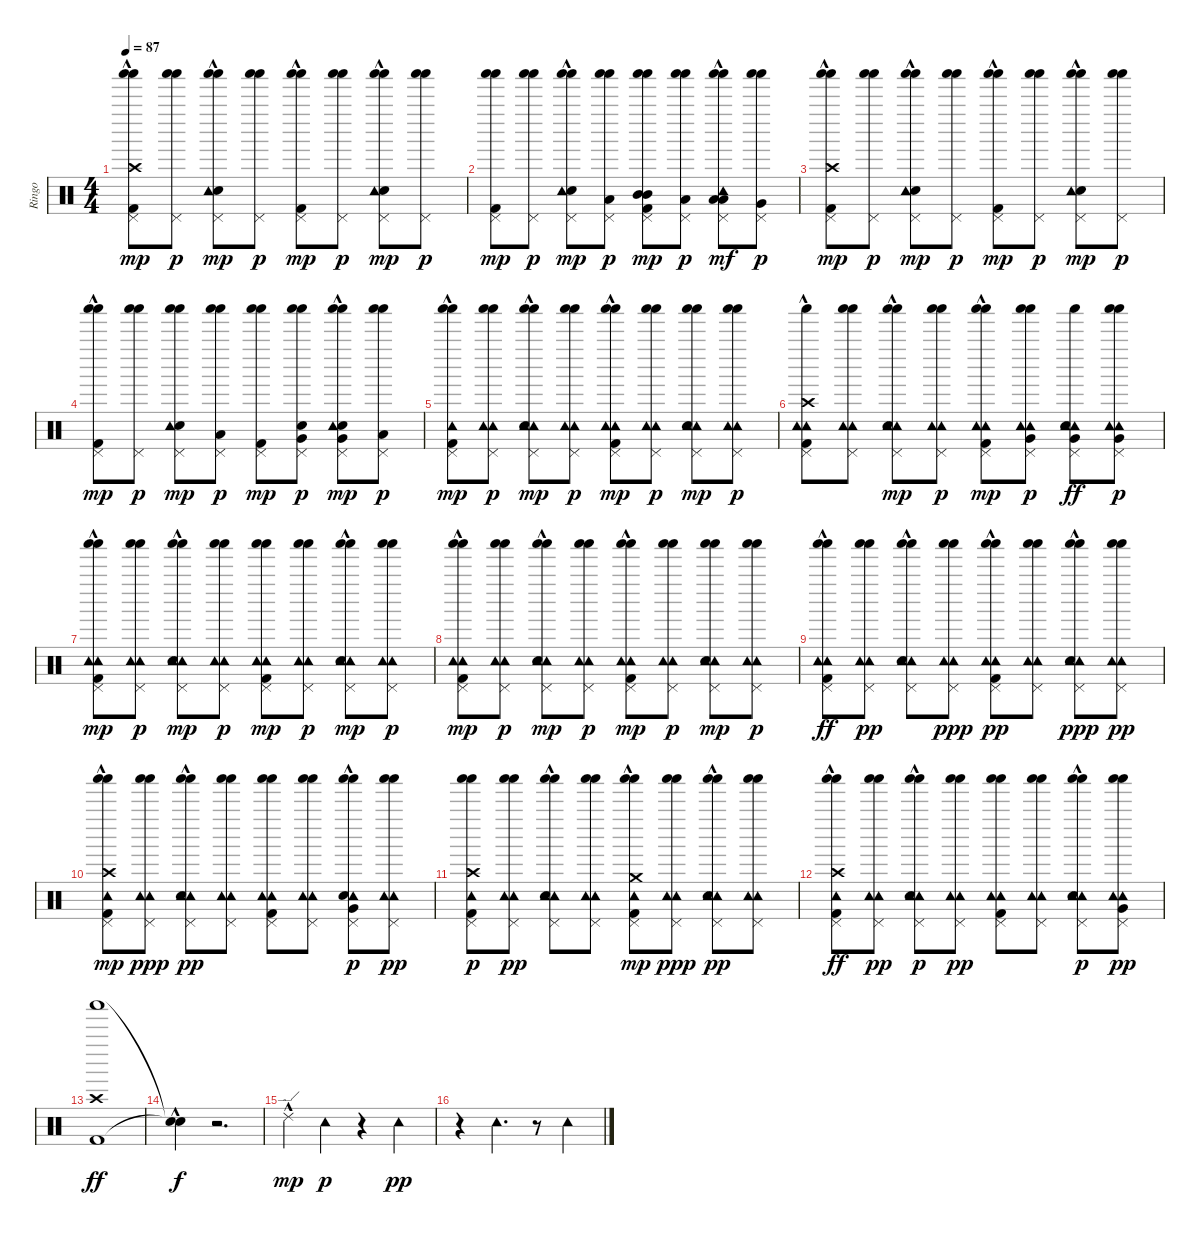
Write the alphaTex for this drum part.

\track ("Ringo" "Ringo") {instrument percussion}
\staff {score}
\articulation defaults
\ts (4 4)
\tempo 87
\clef neutral
\ks c
("Shaker (hit)" "Crash high (hit)" "Kick (hit) 2"{hac} "Pedal Hi-Hat (hit)" "Shaker (hit)").8{dy mp} ("Shaker (hit)" "Pedal Hi-Hat (hit)" "Shaker (hit)").8{dy p} ("Shaker (hit)" "Snare (hit) 2"{hac} "Pedal Hi-Hat (hit)" "Tambourine (hit)" "Shaker (hit)").8{dy mp} ("Shaker (hit)" "Pedal Hi-Hat (hit)" "Shaker (hit)").8{dy p} ("Shaker (hit)" "Kick (hit) 2"{hac} "Pedal Hi-Hat (hit)" "Shaker (hit)").8{dy mp} ("Shaker (hit)" "Pedal Hi-Hat (hit)" "Shaker (hit)").8{dy p} ("Shaker (hit)" "Snare (hit) 2"{hac} "Pedal Hi-Hat (hit)" "Tambourine (hit)" "Shaker (hit)").8{dy mp} ("Shaker (hit)" "Pedal Hi-Hat (hit)" "Shaker (hit)").8{dy p} |
("Shaker (hit)" "Pedal Hi-Hat (hit)" "Kick (hit) 2" "Shaker (hit)").8{dy mp} ("Shaker (hit)" "Pedal Hi-Hat (hit)" "Shaker (hit)").8{dy p} ("Shaker (hit)" "Pedal Hi-Hat (hit)" "Snare (hit) 2"{hac} "Tambourine (hit)"{hac} "Shaker (hit)").8{dy mp} ("Shaker (hit)" "Pedal Hi-Hat (hit)" "Low Floor Tom (hit)" "Shaker (hit)").8{dy p} ("Shaker (hit)" "Pedal Hi-Hat (hit)" "Mid Tom (hit)" "Kick (hit) 2" "Shaker (hit)" "Mid Tom (hit)").8{dy mp} ("Shaker (hit)" "Pedal Hi-Hat (hit)" "Low Tom (hit)" "Shaker (hit)").8{dy p} ("Shaker (hit)" "Pedal Hi-Hat (hit)" "Low Tom (hit)" "Tambourine (hit)"{hac} "Shaker (hit)" "Low Tom (hit)").8{dy mf} ("Shaker (hit)" "Pedal Hi-Hat (hit)" "Very Low Tom (hit)" "Shaker (hit)").8{dy p} |
("Shaker (hit)" "Crash high (hit)"{hac} "Kick (hit) 2"{hac} "Pedal Hi-Hat (hit)" "Shaker (hit)").8{dy mp} ("Shaker (hit)" "Pedal Hi-Hat (hit)" "Shaker (hit)").8{dy p} ("Shaker (hit)" "Snare (hit) 2"{hac} "Pedal Hi-Hat (hit)" "Tambourine (hit)" "Shaker (hit)").8{dy mp} ("Shaker (hit)" "Pedal Hi-Hat (hit)" "Shaker (hit)").8{dy p} ("Shaker (hit)" "Kick (hit) 2"{hac} "Pedal Hi-Hat (hit)" "Shaker (hit)").8{dy mp} ("Shaker (hit)" "Pedal Hi-Hat (hit)" "Shaker (hit)").8{dy p} ("Shaker (hit)" "Snare (hit) 2"{hac} "Pedal Hi-Hat (hit)" "Tambourine (hit)" "Shaker (hit)").8{dy mp} ("Shaker (hit)" "Pedal Hi-Hat (hit)" "Shaker (hit)").8{dy p} |
("Shaker (hit)" "Pedal Hi-Hat (hit)" "Kick (hit) 2"{hac} "Shaker (hit)").8{dy mp} ("Shaker (hit)" "Pedal Hi-Hat (hit)" "Shaker (hit)").8{dy p} ("Shaker (hit)" "Pedal Hi-Hat (hit)" "Snare (hit) 2" "Tambourine (hit)" "Shaker (hit)").8{dy mp} ("Shaker (hit)" "Pedal Hi-Hat (hit)" "Low Floor Tom (hit)" "Shaker (hit)").8{dy p} ("Shaker (hit)" "Pedal Hi-Hat (hit)" "Kick (hit) 2" "Shaker (hit)").8{dy mp} ("Shaker (hit)" "Pedal Hi-Hat (hit)" "Snare (hit) 2" "Very Low Tom (hit)" "Shaker (hit)").8{dy p} ("Shaker (hit)" "Pedal Hi-Hat (hit)" "Snare (hit) 2"{hac} "Tambourine (hit)"{hac} "Shaker (hit)" "Very Low Tom (hit)").8{dy mp} ("Shaker (hit)" "Pedal Hi-Hat (hit)" "Low Floor Tom (hit)" "Shaker (hit)").8{dy p} |
("Shaker (hit)" "Pedal Hi-Hat (hit)" "Kick (hit) 2"{hac} "Tambourine (hit)" "Shaker (hit)").8{dy mp} ("Shaker (hit)" "Tambourine (hit)" "Pedal Hi-Hat (hit)" "Tambourine (hit)" "Shaker (hit)").8{dy p} ("Shaker (hit)" "Tambourine (hit)" "Tambourine (hit)" "Pedal Hi-Hat (hit)" "Snare (hit) 2"{hac} "Shaker (hit)").8{dy mp} ("Shaker (hit)" "Tambourine (hit)" "Pedal Hi-Hat (hit)" "Tambourine (hit)" "Shaker (hit)").8{dy p} ("Shaker (hit)" "Tambourine (hit)" "Pedal Hi-Hat (hit)" "Kick (hit) 2"{hac} "Tambourine (hit)" "Shaker (hit)").8{dy mp} ("Shaker (hit)" "Tambourine (hit)" "Pedal Hi-Hat (hit)" "Tambourine (hit)" "Shaker (hit)").8{dy p} ("Shaker (hit)" "Tambourine (hit)" "Tambourine (hit)" "Pedal Hi-Hat (hit)" "Snare (hit) 2" "Shaker (hit)").8{dy mp} ("Shaker (hit)" "Tambourine (hit)" "Pedal Hi-Hat (hit)" "Tambourine (hit)" "Shaker (hit)").8{dy p} |
("Shaker (hit)" "Tambourine (hit)" "Pedal Hi-Hat (hit)" "Kick (hit) 2"{hac} "Crash high (hit)"{hac} "Tambourine (hit)").8 ("Shaker (hit)" "Tambourine (hit)" "Pedal Hi-Hat (hit)" "Tambourine (hit)" "Shaker (hit)").8 ("Shaker (hit)" "Tambourine (hit)" "Tambourine (hit)" "Pedal Hi-Hat (hit)" "Snare (hit) 2"{hac} "Shaker (hit)").8{dy mp} ("Shaker (hit)" "Tambourine (hit)" "Pedal Hi-Hat (hit)" "Tambourine (hit)" "Shaker (hit)").8{dy p} ("Shaker (hit)" "Tambourine (hit)" "Pedal Hi-Hat (hit)" "Kick (hit) 2"{hac} "Tambourine (hit)" "Shaker (hit)").8{dy mp} ("Shaker (hit)" "Tambourine (hit)" "Very Low Tom (hit)" "Pedal Hi-Hat (hit)" "Tambourine (hit)" "Shaker (hit)").8{dy p} ("Shaker (hit)" "Tambourine (hit)" "Tambourine (hit)" "Very Low Tom (hit)" "Pedal Hi-Hat (hit)" "Snare (hit) 2").8{dy ff} ("Shaker (hit)" "Tambourine (hit)" "Very Low Tom (hit)" "Pedal Hi-Hat (hit)" "Tambourine (hit)" "Shaker (hit)").8{dy p} |
("Shaker (hit)" "Tambourine (hit)" "Kick (hit) 2"{hac} "Pedal Hi-Hat (hit)" "Tambourine (hit)" "Shaker (hit)").8{dy mp} ("Shaker (hit)" "Tambourine (hit)" "Pedal Hi-Hat (hit)" "Tambourine (hit)" "Shaker (hit)").8{dy p} ("Shaker (hit)" "Tambourine (hit)" "Tambourine (hit)" "Snare (hit) 2"{hac} "Pedal Hi-Hat (hit)" "Shaker (hit)").8{dy mp} ("Shaker (hit)" "Tambourine (hit)" "Pedal Hi-Hat (hit)" "Tambourine (hit)" "Shaker (hit)").8{dy p} ("Shaker (hit)" "Tambourine (hit)" "Kick (hit) 2" "Pedal Hi-Hat (hit)" "Tambourine (hit)" "Shaker (hit)").8{dy mp} ("Shaker (hit)" "Tambourine (hit)" "Pedal Hi-Hat (hit)" "Tambourine (hit)" "Shaker (hit)").8{dy p} ("Shaker (hit)" "Tambourine (hit)" "Tambourine (hit)" "Snare (hit) 2"{hac} "Pedal Hi-Hat (hit)" "Shaker (hit)").8{dy mp} ("Shaker (hit)" "Tambourine (hit)" "Pedal Hi-Hat (hit)" "Tambourine (hit)" "Shaker (hit)").8{dy p} |
("Shaker (hit)" "Tambourine (hit)" "Kick (hit) 2"{hac} "Pedal Hi-Hat (hit)" "Tambourine (hit)" "Shaker (hit)").8{dy mp} ("Shaker (hit)" "Tambourine (hit)" "Pedal Hi-Hat (hit)" "Tambourine (hit)" "Shaker (hit)").8{dy p} ("Shaker (hit)" "Tambourine (hit)" "Tambourine (hit)" "Snare (hit) 2"{hac} "Pedal Hi-Hat (hit)" "Shaker (hit)").8{dy mp} ("Shaker (hit)" "Tambourine (hit)" "Pedal Hi-Hat (hit)" "Tambourine (hit)" "Shaker (hit)").8{dy p} ("Shaker (hit)" "Tambourine (hit)" "Kick (hit) 2"{hac} "Pedal Hi-Hat (hit)" "Tambourine (hit)" "Shaker (hit)").8{dy mp} ("Shaker (hit)" "Tambourine (hit)" "Pedal Hi-Hat (hit)" "Tambourine (hit)" "Shaker (hit)").8{dy p} ("Shaker (hit)" "Tambourine (hit)" "Tambourine (hit)" "Snare (hit) 2" "Pedal Hi-Hat (hit)" "Shaker (hit)").8{dy mp} ("Shaker (hit)" "Tambourine (hit)" "Pedal Hi-Hat (hit)" "Tambourine (hit)" "Shaker (hit)").8{dy p} |
("Shaker (hit)" "Tambourine (hit)" "Tambourine (hit)" "Shaker (hit)" "Pedal Hi-Hat (hit)" "Kick (hit) 2"{hac}).8{dy ff} ("Shaker (hit)" "Tambourine (hit)" "Pedal Hi-Hat (hit)" "Shaker (hit)" "Tambourine (hit)").8{dy pp} ("Shaker (hit)" "Tambourine (hit)" "Pedal Hi-Hat (hit)" "Snare (hit) 2"{hac} "Shaker (hit)" "Tambourine (hit)").8 ("Shaker (hit)" "Tambourine (hit)" "Pedal Hi-Hat (hit)" "Shaker (hit)" "Tambourine (hit)").8{dy ppp} ("Shaker (hit)" "Tambourine (hit)" "Pedal Hi-Hat (hit)" "Kick (hit) 2"{hac} "Shaker (hit)" "Tambourine (hit)").8{dy pp} ("Shaker (hit)" "Tambourine (hit)" "Pedal Hi-Hat (hit)" "Shaker (hit)" "Tambourine (hit)").8 ("Shaker (hit)" "Tambourine (hit)" "Pedal Hi-Hat (hit)" "Snare (hit) 2"{hac} "Shaker (hit)" "Tambourine (hit)").8{dy ppp} ("Shaker (hit)" "Tambourine (hit)" "Pedal Hi-Hat (hit)" "Shaker (hit)" "Tambourine (hit)").8{dy pp} |
("Shaker (hit)" "Tambourine (hit)" "Shaker (hit)" "Crash high (hit)"{hac} "Pedal Hi-Hat (hit)" "Kick (hit) 2").8{dy mp} ("Shaker (hit)" "Tambourine (hit)" "Pedal Hi-Hat (hit)" "Shaker (hit)" "Tambourine (hit)").8{dy ppp} ("Shaker (hit)" "Tambourine (hit)" "Pedal Hi-Hat (hit)" "Snare (hit) 2"{hac} "Shaker (hit)" "Tambourine (hit)").8{dy pp} ("Shaker (hit)" "Tambourine (hit)" "Pedal Hi-Hat (hit)" "Shaker (hit)" "Tambourine (hit)").8 ("Shaker (hit)" "Tambourine (hit)" "Pedal Hi-Hat (hit)" "Kick (hit) 2" "Shaker (hit)" "Tambourine (hit)").8 ("Shaker (hit)" "Tambourine (hit)" "Pedal Hi-Hat (hit)" "Shaker (hit)" "Tambourine (hit)").8 ("Shaker (hit)" "Tambourine (hit)" "Very Low Tom (hit)" "Pedal Hi-Hat (hit)" "Snare (hit) 2"{hac} "Shaker (hit)").8{dy p} ("Shaker (hit)" "Tambourine (hit)" "Pedal Hi-Hat (hit)" "Shaker (hit)" "Tambourine (hit)").8{dy pp} |
("Shaker (hit)" "Tambourine (hit)" "Shaker (hit)" "Crash high (hit)" "Pedal Hi-Hat (hit)" "Kick (hit) 2").8{dy p} ("Shaker (hit)" "Tambourine (hit)" "Pedal Hi-Hat (hit)" "Shaker (hit)" "Tambourine (hit)").8{dy pp} ("Shaker (hit)" "Tambourine (hit)" "Pedal Hi-Hat (hit)" "Snare (hit) 2"{hac} "Shaker (hit)" "Tambourine (hit)").8 ("Shaker (hit)" "Tambourine (hit)" "Pedal Hi-Hat (hit)" "Shaker (hit)" "Tambourine (hit)").8 ("Shaker (hit)" "Tambourine (hit)" "Crash medium (hit)" "Pedal Hi-Hat (hit)" "Kick (hit) 2"{hac} "Shaker (hit)").8{dy mp} ("Shaker (hit)" "Tambourine (hit)" "Pedal Hi-Hat (hit)" "Shaker (hit)" "Tambourine (hit)").8{dy ppp} ("Shaker (hit)" "Tambourine (hit)" "Pedal Hi-Hat (hit)" "Snare (hit) 2"{hac} "Shaker (hit)" "Tambourine (hit)").8{dy pp} ("Shaker (hit)" "Tambourine (hit)" "Pedal Hi-Hat (hit)" "Shaker (hit)" "Tambourine (hit)").8 |
("Shaker (hit)" "Tambourine (hit)" "Shaker (hit)" "Crash high (hit)"{hac} "Pedal Hi-Hat (hit)" "Kick (hit) 2").8{dy ff} ("Shaker (hit)" "Tambourine (hit)" "Pedal Hi-Hat (hit)" "Shaker (hit)" "Tambourine (hit)").8{dy pp} ("Shaker (hit)" "Tambourine (hit)" "Pedal Hi-Hat (hit)" "Snare (hit) 2"{hac} "Shaker (hit)" "Tambourine (hit)").8{dy p} ("Shaker (hit)" "Tambourine (hit)" "Pedal Hi-Hat (hit)" "Shaker (hit)" "Tambourine (hit)").8{dy pp} ("Shaker (hit)" "Tambourine (hit)" "Pedal Hi-Hat (hit)" "Kick (hit) 2" "Shaker (hit)" "Tambourine (hit)").8 ("Shaker (hit)" "Tambourine (hit)" "Pedal Hi-Hat (hit)" "Shaker (hit)" "Tambourine (hit)").8 ("Shaker (hit)" "Tambourine (hit)" "Pedal Hi-Hat (hit)" "Snare (hit) 2"{hac} "Shaker (hit)" "Tambourine (hit)").8{dy p} ("Shaker (hit)" "Tambourine (hit)" "Very Low Tom (hit)" "Pedal Hi-Hat (hit)" "Shaker (hit)" "Tambourine (hit)").8{dy pp} |
("Shaker (hit)" "Kick (hit) 2" "Crash high (hit)").1{dy ff} |
("Snare (hit)"{hac t} "Snare (hit)"{t}).4{dy f} r.2{d} |
"Ride (edge) 2"{hac}.4{dy mp} "Tambourine (hit)".4{dy p} r.4 "Tambourine (hit)".4{dy pp} |
r.4 "Tambourine (hit)".4{d} r.8 "Tambourine (hit)".4
